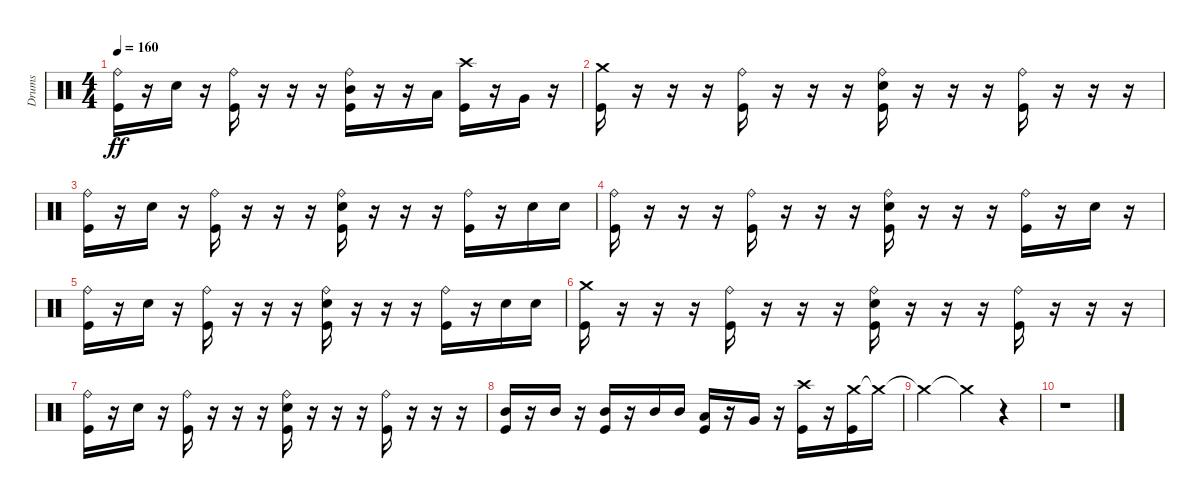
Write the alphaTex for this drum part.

\track ("Drums" "Drums") {instrument percussion}
\staff {score}
\articulation defaults
\ts (4 4)
\tempo 160
\clef neutral
\ks c
("Ride (bell)" "Kick (hit)").16{dy ff} r.16 "Electric Snare (hit)".16 r.16 ("Ride (bell)" "Kick (hit)").16 r.16 r.16 r.16 ("Ride (bell)" "Mid Tom (hit)" "Kick (hit)").16 r.16 r.16 "Low Tom (hit)".16 ("Crash high (hit)" "Kick (hit)").16 r.16 "Very Low Tom (hit)".16 r.16 |
("Crash medium (hit)" "Kick (hit)").16 r.16 r.16 r.16 ("Ride (bell)" "Kick (hit)").16 r.16 r.16 r.16 ("Ride (bell)" "Electric Snare (hit)" "Kick (hit)").16 r.16 r.16 r.16 ("Ride (bell)" "Kick (hit)").16 r.16 r.16 r.16 |
("Ride (bell)" "Kick (hit)").16 r.16 "Electric Snare (hit)".16 r.16 ("Ride (bell)" "Kick (hit)").16 r.16 r.16 r.16 ("Ride (bell)" "Electric Snare (hit)" "Kick (hit)").16 r.16 r.16 r.16 ("Ride (bell)" "Kick (hit)").16 r.16 "Electric Snare (hit)".16 "Electric Snare (hit)".16 |
("Ride (bell)" "Kick (hit)").16 r.16 r.16 r.16 ("Ride (bell)" "Kick (hit)").16 r.16 r.16 r.16 ("Ride (bell)" "Electric Snare (hit)" "Kick (hit)").16 r.16 r.16 r.16 ("Ride (bell)" "Kick (hit)").16 r.16 "Electric Snare (hit)".16 r.16 |
("Ride (bell)" "Kick (hit)").16 r.16 "Electric Snare (hit)".16 r.16 ("Ride (bell)" "Kick (hit)").16 r.16 r.16 r.16 ("Ride (bell)" "Electric Snare (hit)" "Kick (hit)").16 r.16 r.16 r.16 ("Ride (bell)" "Kick (hit)").16 r.16 "Electric Snare (hit)".16 "Electric Snare (hit)".16 |
("Crash medium (hit)" "Kick (hit)").16 r.16 r.16 r.16 ("Ride (bell)" "Kick (hit)").16 r.16 r.16 r.16 ("Ride (bell)" "Electric Snare (hit)" "Kick (hit)").16 r.16 r.16 r.16 ("Ride (bell)" "Kick (hit)").16 r.16 r.16 r.16 |
("Ride (bell)" "Kick (hit)").16 r.16 "Electric Snare (hit)".16 r.16 ("Ride (bell)" "Kick (hit)").16 r.16 r.16 r.16 ("Ride (bell)" "Electric Snare (hit)" "Kick (hit)").16 r.16 r.16 r.16 ("Ride (bell)" "Kick (hit)").16 r.16 r.16 r.16 |
("Mid Tom (hit)" "Kick (hit)").16 r.16 "Mid Tom (hit)".16 r.16 ("Mid Tom (hit)" "Kick (hit)").16 r.16 "Mid Tom (hit)".16 "Mid Tom (hit)".16 ("Low Tom (hit)" "Kick (hit)").16 r.16 "Very Low Tom (hit)".16 r.16 ("Crash high (hit)" "Kick (hit)").16 r.16 ("Crash medium (hit)" "Kick (hit)").16 "Crash medium (hit)"{t}.16 |
"Crash medium (hit)"{t}.2 "Crash medium (hit)"{t}.4 r.4 |
r.1
